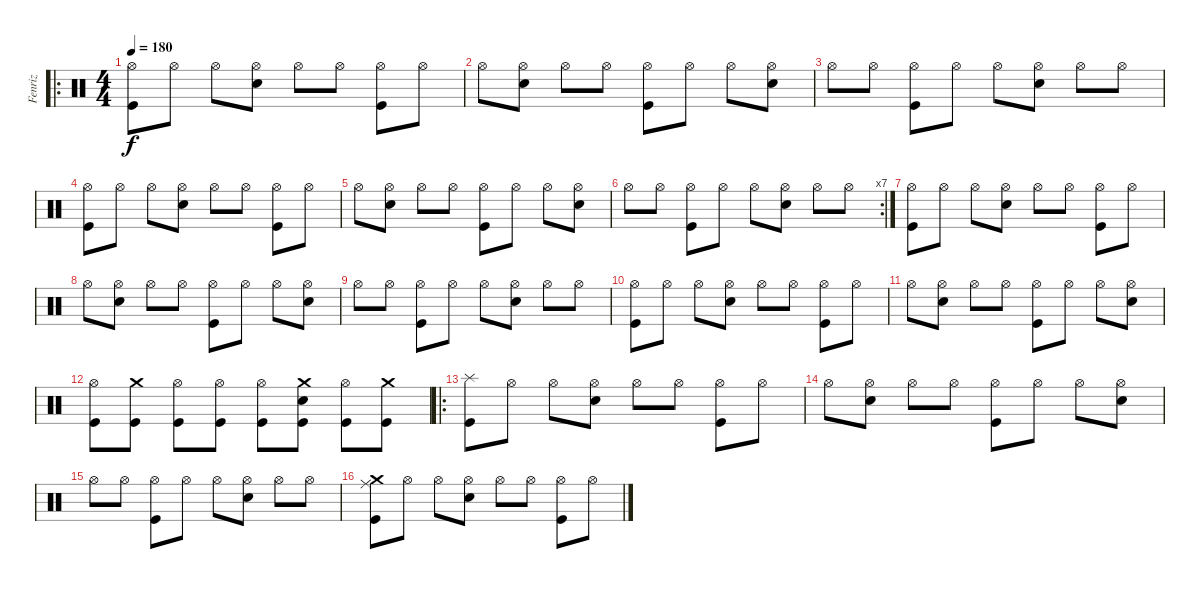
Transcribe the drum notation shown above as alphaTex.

\track ("Fenriz" "Fenriz") {instrument percussion}
\staff {score}
\articulation defaults
\ro
\ts (4 4)
\tempo 180
\clef neutral
\ks c
("Hi-Hat (open)" "Kick (hit)").8{dy f} "Hi-Hat (open)".8 "Hi-Hat (open)".8 ("Hi-Hat (open)" "Snare (hit) 2").8 "Hi-Hat (open)".8 "Hi-Hat (open)".8 ("Hi-Hat (open)" "Kick (hit)").8 "Hi-Hat (open)".8 |
"Hi-Hat (open)".8 ("Hi-Hat (open)" "Snare (hit) 2").8 "Hi-Hat (open)".8 "Hi-Hat (open)".8 ("Hi-Hat (open)" "Kick (hit)").8 "Hi-Hat (open)".8 "Hi-Hat (open)".8 ("Hi-Hat (open)" "Snare (hit) 2").8 |
"Hi-Hat (open)".8 "Hi-Hat (open)".8 ("Hi-Hat (open)" "Kick (hit)").8 "Hi-Hat (open)".8 "Hi-Hat (open)".8 ("Hi-Hat (open)" "Snare (hit) 2").8 "Hi-Hat (open)".8 "Hi-Hat (open)".8 |
("Hi-Hat (open)" "Kick (hit)").8 "Hi-Hat (open)".8 "Hi-Hat (open)".8 ("Hi-Hat (open)" "Snare (hit) 2").8 "Hi-Hat (open)".8 "Hi-Hat (open)".8 ("Hi-Hat (open)" "Kick (hit)").8 "Hi-Hat (open)".8 |
"Hi-Hat (open)".8 ("Hi-Hat (open)" "Snare (hit) 2").8 "Hi-Hat (open)".8 "Hi-Hat (open)".8 ("Hi-Hat (open)" "Kick (hit)").8 "Hi-Hat (open)".8 "Hi-Hat (open)".8 ("Hi-Hat (open)" "Snare (hit) 2").8 |
\rc 7 "Hi-Hat (open)".8 "Hi-Hat (open)".8
("Hi-Hat (open)" "Kick (hit)").8 "Hi-Hat (open)".8 "Hi-Hat (open)".8 ("Hi-Hat (open)" "Snare (hit) 2").8 "Hi-Hat (open)".8 "Hi-Hat (open)".8 |
("Hi-Hat (open)" "Kick (hit)").8 "Hi-Hat (open)".8 "Hi-Hat (open)".8 ("Hi-Hat (open)" "Snare (hit) 2").8 "Hi-Hat (open)".8 "Hi-Hat (open)".8 ("Hi-Hat (open)" "Kick (hit)").8 "Hi-Hat (open)".8 |
"Hi-Hat (open)".8 ("Hi-Hat (open)" "Snare (hit) 2").8 "Hi-Hat (open)".8 "Hi-Hat (open)".8 ("Hi-Hat (open)" "Kick (hit)").8 "Hi-Hat (open)".8 "Hi-Hat (open)".8 ("Hi-Hat (open)" "Snare (hit) 2").8 |
"Hi-Hat (open)".8 "Hi-Hat (open)".8 ("Hi-Hat (open)" "Kick (hit)").8 "Hi-Hat (open)".8 "Hi-Hat (open)".8 ("Hi-Hat (open)" "Snare (hit) 2").8 "Hi-Hat (open)".8 "Hi-Hat (open)".8 |
("Hi-Hat (open)" "Kick (hit)").8 "Hi-Hat (open)".8 "Hi-Hat (open)".8 ("Hi-Hat (open)" "Snare (hit) 2").8 "Hi-Hat (open)".8 "Hi-Hat (open)".8 ("Hi-Hat (open)" "Kick (hit)").8 "Hi-Hat (open)".8 |
"Hi-Hat (open)".8 ("Hi-Hat (open)" "Snare (hit) 2").8 "Hi-Hat (open)".8 "Hi-Hat (open)".8 ("Hi-Hat (open)" "Kick (hit)").8 "Hi-Hat (open)".8 "Hi-Hat (open)".8 ("Hi-Hat (open)" "Snare (hit) 2").8 |
("Hi-Hat (open)" "Kick (hit)").8 ("Crash medium (hit)" "Kick (hit)").8 ("Hi-Hat (open)" "Kick (hit)").8 ("Hi-Hat (open)" "Kick (hit)").8 ("Hi-Hat (open)" "Kick (hit)").8 ("Crash medium (hit)" "Snare (hit) 2" "Kick (hit)").8 ("Hi-Hat (open)" "Kick (hit)").8 ("Crash medium (hit)" "Kick (hit)").8 |
\ro
("Splash (hit)" "Kick (hit)").8 "Hi-Hat (open)".8 "Hi-Hat (open)".8 ("Hi-Hat (open)" "Snare (hit) 2").8 "Hi-Hat (open)".8 "Hi-Hat (open)".8 ("Hi-Hat (open)" "Kick (hit)").8 "Hi-Hat (open)".8 |
"Hi-Hat (open)".8 ("Hi-Hat (open)" "Snare (hit) 2").8 "Hi-Hat (open)".8 "Hi-Hat (open)".8 ("Hi-Hat (open)" "Kick (hit)").8 "Hi-Hat (open)".8 "Hi-Hat (open)".8 ("Hi-Hat (open)" "Snare (hit) 2").8 |
"Hi-Hat (open)".8 "Hi-Hat (open)".8 ("Hi-Hat (open)" "Kick (hit)").8 "Hi-Hat (open)".8 "Hi-Hat (open)".8 ("Hi-Hat (open)" "Snare (hit) 2").8 "Hi-Hat (open)".8 "Hi-Hat (open)".8 |
("Crash medium (hit)" "Ride (middle)" "Kick (hit)").8 "Hi-Hat (open)".8 "Hi-Hat (open)".8 ("Hi-Hat (open)" "Snare (hit) 2").8 "Hi-Hat (open)".8 "Hi-Hat (open)".8 ("Hi-Hat (open)" "Kick (hit)").8 "Hi-Hat (open)".8
